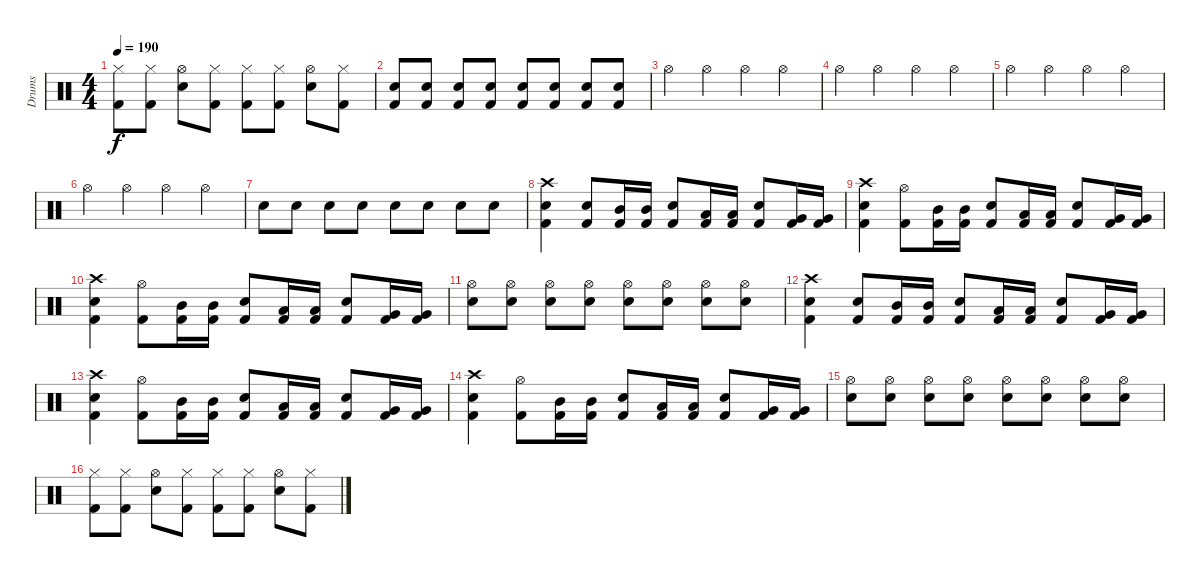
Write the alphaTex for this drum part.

\track ("Drums" "Drums") {instrument percussion}
\staff {score}
\articulation defaults
\ts (4 4)
\tempo 190
\clef neutral
\ks c
("Hi-Hat (closed)" "Kick (hit) 2").8{dy f} ("Hi-Hat (closed)" "Kick (hit) 2").8 ("Hi-Hat (open)" "Snare (hit) 2").8 ("Hi-Hat (closed)" "Kick (hit) 2").8 ("Hi-Hat (closed)" "Kick (hit) 2").8 ("Hi-Hat (closed)" "Kick (hit) 2").8 ("Hi-Hat (open)" "Snare (hit) 2").8 ("Hi-Hat (closed)" "Kick (hit) 2").8 |
("Snare (hit) 2" "Kick (hit) 2").8 ("Snare (hit) 2" "Kick (hit) 2").8 ("Snare (hit) 2" "Kick (hit) 2").8 ("Snare (hit) 2" "Kick (hit) 2").8 ("Snare (hit) 2" "Kick (hit) 2").8 ("Snare (hit) 2" "Kick (hit) 2").8 ("Snare (hit) 2" "Kick (hit) 2").8 ("Snare (hit) 2" "Kick (hit) 2").8 |
"Hi-Hat (open)".4 "Hi-Hat (open)".4 "Hi-Hat (open)".4 "Hi-Hat (open)".4 |
"Hi-Hat (open)".4 "Hi-Hat (open)".4 "Hi-Hat (open)".4 "Hi-Hat (open)".4 |
"Hi-Hat (open)".4 "Hi-Hat (open)".4 "Hi-Hat (open)".4 "Hi-Hat (open)".4 |
"Hi-Hat (open)".4 "Hi-Hat (open)".4 "Hi-Hat (open)".4 "Hi-Hat (open)".4 |
"Snare (hit) 2".8 "Snare (hit) 2".8 "Snare (hit) 2".8 "Snare (hit) 2".8 "Snare (hit) 2".8 "Snare (hit) 2".8 "Snare (hit) 2".8 "Snare (hit) 2".8 |
("Crash high (hit)" "Snare (hit) 2" "Kick (hit) 2").4 ("Snare (hit) 2" "Kick (hit) 2").8 ("Mid Tom (hit)" "Kick (hit) 2").16 ("Mid Tom (hit)" "Kick (hit) 2").16 ("Snare (hit) 2" "Kick (hit) 2").8 ("Low Tom (hit)" "Kick (hit) 2").16 ("Low Tom (hit)" "Kick (hit) 2").16 ("Snare (hit) 2" "Kick (hit) 2").8 ("Very Low Tom (hit)" "Kick (hit) 2").16 ("Very Low Tom (hit)" "Kick (hit) 2").16 |
("Crash high (hit)" "Snare (hit) 2" "Kick (hit) 2").4 ("Hi-Hat (open)" "Kick (hit) 2").8 ("Mid Tom (hit)" "Kick (hit) 2").16 ("Mid Tom (hit)" "Kick (hit) 2").16 ("Snare (hit) 2" "Kick (hit) 2").8 ("Low Tom (hit)" "Kick (hit) 2").16 ("Low Tom (hit)" "Kick (hit) 2").16 ("Snare (hit) 2" "Kick (hit) 2").8 ("Very Low Tom (hit)" "Kick (hit) 2").16 ("Very Low Tom (hit)" "Kick (hit) 2").16 |
("Crash high (hit)" "Snare (hit) 2" "Kick (hit) 2").4 ("Hi-Hat (open)" "Kick (hit) 2").8 ("Mid Tom (hit)" "Kick (hit) 2").16 ("Mid Tom (hit)" "Kick (hit) 2").16 ("Snare (hit) 2" "Kick (hit) 2").8 ("Low Tom (hit)" "Kick (hit) 2").16 ("Low Tom (hit)" "Kick (hit) 2").16 ("Snare (hit) 2" "Kick (hit) 2").8 ("Very Low Tom (hit)" "Kick (hit) 2").16 ("Very Low Tom (hit)" "Kick (hit) 2").16 |
("Hi-Hat (open)" "Snare (hit) 2").8 ("Hi-Hat (open)" "Snare (hit) 2").8 ("Hi-Hat (open)" "Snare (hit) 2").8 ("Hi-Hat (open)" "Snare (hit) 2").8 ("Hi-Hat (open)" "Snare (hit) 2").8 ("Hi-Hat (open)" "Snare (hit) 2").8 ("Hi-Hat (open)" "Snare (hit) 2").8 ("Hi-Hat (open)" "Snare (hit) 2").8 |
("Crash high (hit)" "Snare (hit) 2" "Kick (hit) 2").4 ("Snare (hit) 2" "Kick (hit) 2").8 ("Mid Tom (hit)" "Kick (hit) 2").16 ("Mid Tom (hit)" "Kick (hit) 2").16 ("Snare (hit) 2" "Kick (hit) 2").8 ("Low Tom (hit)" "Kick (hit) 2").16 ("Low Tom (hit)" "Kick (hit) 2").16 ("Snare (hit) 2" "Kick (hit) 2").8 ("Very Low Tom (hit)" "Kick (hit) 2").16 ("Very Low Tom (hit)" "Kick (hit) 2").16 |
("Crash high (hit)" "Snare (hit) 2" "Kick (hit) 2").4 ("Hi-Hat (open)" "Kick (hit) 2").8 ("Mid Tom (hit)" "Kick (hit) 2").16 ("Mid Tom (hit)" "Kick (hit) 2").16 ("Snare (hit) 2" "Kick (hit) 2").8 ("Low Tom (hit)" "Kick (hit) 2").16 ("Low Tom (hit)" "Kick (hit) 2").16 ("Snare (hit) 2" "Kick (hit) 2").8 ("Very Low Tom (hit)" "Kick (hit) 2").16 ("Very Low Tom (hit)" "Kick (hit) 2").16 |
("Crash high (hit)" "Snare (hit) 2" "Kick (hit) 2").4 ("Hi-Hat (open)" "Kick (hit) 2").8 ("Mid Tom (hit)" "Kick (hit) 2").16 ("Mid Tom (hit)" "Kick (hit) 2").16 ("Snare (hit) 2" "Kick (hit) 2").8 ("Low Tom (hit)" "Kick (hit) 2").16 ("Low Tom (hit)" "Kick (hit) 2").16 ("Snare (hit) 2" "Kick (hit) 2").8 ("Very Low Tom (hit)" "Kick (hit) 2").16 ("Very Low Tom (hit)" "Kick (hit) 2").16 |
("Hi-Hat (open)" "Snare (hit) 2").8 ("Hi-Hat (open)" "Snare (hit) 2").8 ("Hi-Hat (open)" "Snare (hit) 2").8 ("Hi-Hat (open)" "Snare (hit) 2").8 ("Hi-Hat (open)" "Snare (hit) 2").8 ("Hi-Hat (open)" "Snare (hit) 2").8 ("Hi-Hat (open)" "Snare (hit) 2").8 ("Hi-Hat (open)" "Snare (hit) 2").8 |
("Hi-Hat (closed)" "Kick (hit) 2").8 ("Hi-Hat (closed)" "Kick (hit) 2").8 ("Hi-Hat (open)" "Snare (hit) 2").8 ("Hi-Hat (closed)" "Kick (hit) 2").8 ("Hi-Hat (closed)" "Kick (hit) 2").8 ("Hi-Hat (closed)" "Kick (hit) 2").8 ("Hi-Hat (open)" "Snare (hit) 2").8 ("Hi-Hat (closed)" "Kick (hit) 2").8
